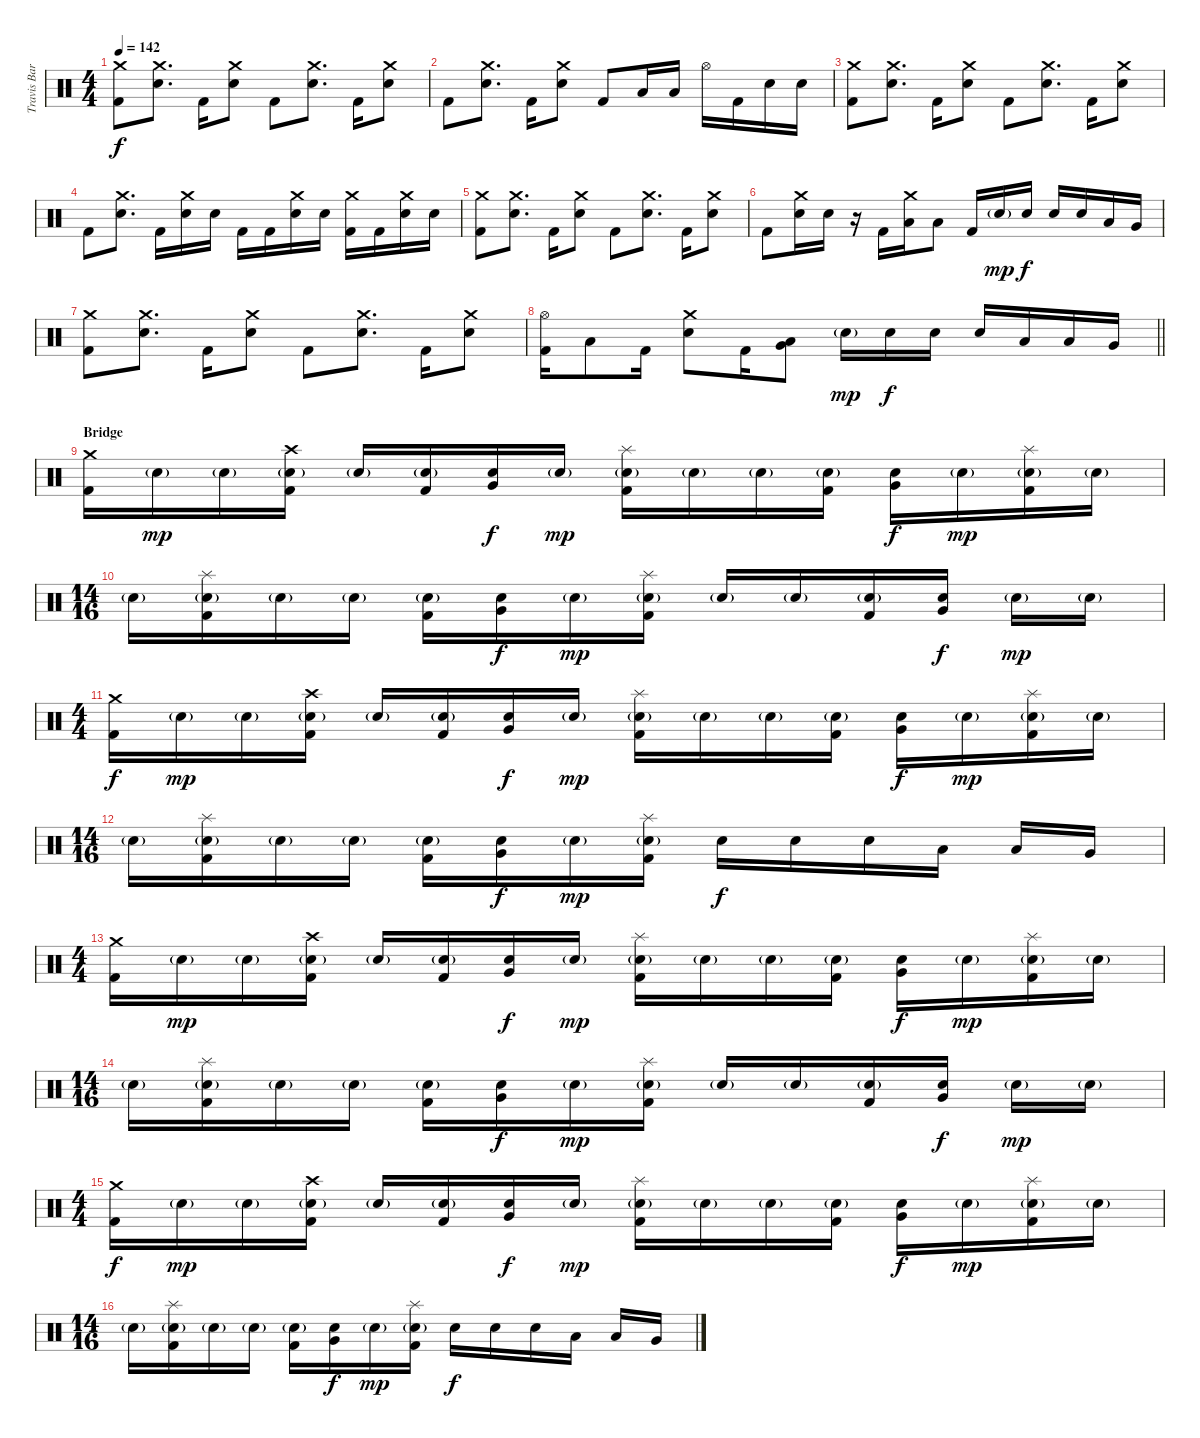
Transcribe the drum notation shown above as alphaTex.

\track ("Travis Barker - Drums" "Travis Bar") {instrument percussion}
\staff {score}
\articulation defaults
\ts (4 4)
\tempo 142
\clef neutral
\ks c
("Crash medium (hit)" "Kick (hit) 2").8{dy f} ("Crash medium (hit)" "Electric Snare (hit)").8{d} "Kick (hit) 2".16 ("Crash medium (hit)" "Electric Snare (hit)").8 "Kick (hit) 2".8 ("Crash medium (hit)" "Electric Snare (hit)").8{d} "Kick (hit) 2".16 ("Crash medium (hit)" "Electric Snare (hit)").8 |
"Kick (hit) 2".8 ("Crash medium (hit)" "Electric Snare (hit)").8{d} "Kick (hit) 2".16 ("Crash medium (hit)" "Electric Snare (hit)").8 "Kick (hit) 2".8 "Low Tom (hit)".16 "Low Tom (hit)".16 "Hi-Hat (open)".16 "Kick (hit) 2".16 "Electric Snare (hit)".16 "Electric Snare (hit)".16 |
("Crash medium (hit)" "Kick (hit) 2").8 ("Crash medium (hit)" "Electric Snare (hit)").8{d} "Kick (hit) 2".16 ("Crash medium (hit)" "Electric Snare (hit)").8 "Kick (hit) 2".8 ("Crash medium (hit)" "Electric Snare (hit)").8{d} "Kick (hit) 2".16 ("Crash medium (hit)" "Electric Snare (hit)").8 |
"Kick (hit) 2".8 ("Crash medium (hit)" "Electric Snare (hit)").8{d} "Kick (hit) 2".16 ("Crash medium (hit)" "Electric Snare (hit)").16 "Electric Snare (hit)".16 "Kick (hit) 2".16 "Kick (hit) 2".16 ("Crash medium (hit)" "Electric Snare (hit)").16 "Electric Snare (hit)".16 ("Crash medium (hit)" "Kick (hit) 2").16 "Kick (hit) 2".16 ("Crash medium (hit)" "Electric Snare (hit)").16 "Electric Snare (hit)".16 |
("Crash medium (hit)" "Kick (hit) 2").8 ("Crash medium (hit)" "Electric Snare (hit)").8{d} "Kick (hit) 2".16 ("Crash medium (hit)" "Electric Snare (hit)").8 "Kick (hit) 2".8 ("Crash medium (hit)" "Electric Snare (hit)").8{d} "Kick (hit) 2".16 ("Crash medium (hit)" "Electric Snare (hit)").8 |
"Kick (hit) 2".8 ("Crash medium (hit)" "Electric Snare (hit)").16 "Electric Snare (hit)".16 r.16 "Kick (hit) 2".16 ("Crash medium (hit)" "Low Tom (hit)").16 "Low Tom (hit)".8 "Kick (hit) 2".16 "Electric Snare (hit)"{g}.16{dy mp} "Electric Snare (hit)".16{dy f} "Electric Snare (hit)".16 "Electric Snare (hit)".16 "Low Tom (hit)".16 "Very Low Tom (hit)".16 |
("Crash medium (hit)" "Kick (hit) 2").8 ("Crash medium (hit)" "Electric Snare (hit)").8{d} "Kick (hit) 2".16 ("Crash medium (hit)" "Electric Snare (hit)").8 "Kick (hit) 2".8 ("Crash medium (hit)" "Electric Snare (hit)").8{d} "Kick (hit) 2".16 ("Crash medium (hit)" "Electric Snare (hit)").8 |
\barLineRight lightlight
("Hi-Hat (open)" "Kick (hit) 2").16 "Low Tom (hit)".8 "Kick (hit) 2".16 ("Crash medium (hit)" "Electric Snare (hit)").8 "Kick (hit) 2".16 ("Very Low Tom (hit)" "Low Tom (hit)").8 "Electric Snare (hit)"{g}.16{dy mp} "Electric Snare (hit)".16{dy f} "Electric Snare (hit)".16 "Electric Snare (hit)".16 "Low Tom (hit)".16 "Low Tom (hit)".16 "Very Low Tom (hit)".16 |
\section ("" "Bridge")
("Crash medium (hit)" "Kick (hit) 2").16 "Electric Snare (hit)"{g}.16{dy mp} "Electric Snare (hit)"{g}.16 ("Crash high (hit)" "Electric Snare (hit)"{g} "Kick (hit) 2").16 "Electric Snare (hit)"{g}.16 ("Electric Snare (hit)"{g} "Kick (hit) 2").16 ("Very Low Tom (hit)" "Electric Snare (hit)").16{dy f} "Electric Snare (hit)"{g}.16{dy mp} ("Splash (hit)" "Electric Snare (hit)"{g} "Kick (hit) 2").16 "Electric Snare (hit)"{g}.16 "Electric Snare (hit)"{g}.16 ("Electric Snare (hit)"{g} "Kick (hit) 2").16 ("Very Low Tom (hit)" "Electric Snare (hit)").16{dy f} "Electric Snare (hit)"{g}.16{dy mp} ("Splash (hit)" "Electric Snare (hit)"{g} "Kick (hit) 2").16 "Electric Snare (hit)"{g}.16 |
\ts (14 16)
"Electric Snare (hit)"{g}.16 ("Splash (hit)" "Electric Snare (hit)"{g} "Kick (hit) 2").16 "Electric Snare (hit)"{g}.16 "Electric Snare (hit)"{g}.16 ("Electric Snare (hit)"{g} "Kick (hit) 2").16 ("Very Low Tom (hit)" "Electric Snare (hit)").16{dy f} "Electric Snare (hit)"{g}.16{dy mp} ("Splash (hit)" "Electric Snare (hit)"{g} "Kick (hit) 2").16 "Electric Snare (hit)"{g}.16 "Electric Snare (hit)"{g}.16 ("Electric Snare (hit)"{g} "Kick (hit) 2").16 ("Very Low Tom (hit)" "Electric Snare (hit)").16{dy f} "Electric Snare (hit)"{g}.16{dy mp} "Electric Snare (hit)"{g}.16 |
\ts (4 4)
("Crash medium (hit)" "Kick (hit) 2").16{dy f} "Electric Snare (hit)"{g}.16{dy mp} "Electric Snare (hit)"{g}.16 ("Crash high (hit)" "Electric Snare (hit)"{g} "Kick (hit) 2").16 "Electric Snare (hit)"{g}.16 ("Electric Snare (hit)"{g} "Kick (hit) 2").16 ("Very Low Tom (hit)" "Electric Snare (hit)").16{dy f} "Electric Snare (hit)"{g}.16{dy mp} ("Splash (hit)" "Electric Snare (hit)"{g} "Kick (hit) 2").16 "Electric Snare (hit)"{g}.16 "Electric Snare (hit)"{g}.16 ("Electric Snare (hit)"{g} "Kick (hit) 2").16 ("Very Low Tom (hit)" "Electric Snare (hit)").16{dy f} "Electric Snare (hit)"{g}.16{dy mp} ("Splash (hit)" "Electric Snare (hit)"{g} "Kick (hit) 2").16 "Electric Snare (hit)"{g}.16 |
\ts (14 16)
"Electric Snare (hit)"{g}.16 ("Splash (hit)" "Electric Snare (hit)"{g} "Kick (hit) 2").16 "Electric Snare (hit)"{g}.16 "Electric Snare (hit)"{g}.16 ("Electric Snare (hit)"{g} "Kick (hit) 2").16 ("Very Low Tom (hit)" "Electric Snare (hit)").16{dy f} "Electric Snare (hit)"{g}.16{dy mp} ("Splash (hit)" "Electric Snare (hit)"{g} "Kick (hit) 2").16 "Electric Snare (hit)".16{dy f} "Electric Snare (hit)".16 "Electric Snare (hit)".16 "Low Tom (hit)".16 "Low Tom (hit)".16 "Very Low Tom (hit)".16 |
\ts (4 4)
("Crash medium (hit)" "Kick (hit) 2").16 "Electric Snare (hit)"{g}.16{dy mp} "Electric Snare (hit)"{g}.16 ("Crash high (hit)" "Electric Snare (hit)"{g} "Kick (hit) 2").16 "Electric Snare (hit)"{g}.16 ("Electric Snare (hit)"{g} "Kick (hit) 2").16 ("Very Low Tom (hit)" "Electric Snare (hit)").16{dy f} "Electric Snare (hit)"{g}.16{dy mp} ("Splash (hit)" "Electric Snare (hit)"{g} "Kick (hit) 2").16 "Electric Snare (hit)"{g}.16 "Electric Snare (hit)"{g}.16 ("Electric Snare (hit)"{g} "Kick (hit) 2").16 ("Very Low Tom (hit)" "Electric Snare (hit)").16{dy f} "Electric Snare (hit)"{g}.16{dy mp} ("Splash (hit)" "Electric Snare (hit)"{g} "Kick (hit) 2").16 "Electric Snare (hit)"{g}.16 |
\ts (14 16)
"Electric Snare (hit)"{g}.16 ("Splash (hit)" "Electric Snare (hit)"{g} "Kick (hit) 2").16 "Electric Snare (hit)"{g}.16 "Electric Snare (hit)"{g}.16 ("Electric Snare (hit)"{g} "Kick (hit) 2").16 ("Very Low Tom (hit)" "Electric Snare (hit)").16{dy f} "Electric Snare (hit)"{g}.16{dy mp} ("Splash (hit)" "Electric Snare (hit)"{g} "Kick (hit) 2").16 "Electric Snare (hit)"{g}.16 "Electric Snare (hit)"{g}.16 ("Electric Snare (hit)"{g} "Kick (hit) 2").16 ("Very Low Tom (hit)" "Electric Snare (hit)").16{dy f} "Electric Snare (hit)"{g}.16{dy mp} "Electric Snare (hit)"{g}.16 |
\ts (4 4)
("Crash medium (hit)" "Kick (hit) 2").16{dy f} "Electric Snare (hit)"{g}.16{dy mp} "Electric Snare (hit)"{g}.16 ("Crash high (hit)" "Electric Snare (hit)"{g} "Kick (hit) 2").16 "Electric Snare (hit)"{g}.16 ("Electric Snare (hit)"{g} "Kick (hit) 2").16 ("Very Low Tom (hit)" "Electric Snare (hit)").16{dy f} "Electric Snare (hit)"{g}.16{dy mp} ("Splash (hit)" "Electric Snare (hit)"{g} "Kick (hit) 2").16 "Electric Snare (hit)"{g}.16 "Electric Snare (hit)"{g}.16 ("Electric Snare (hit)"{g} "Kick (hit) 2").16 ("Very Low Tom (hit)" "Electric Snare (hit)").16{dy f} "Electric Snare (hit)"{g}.16{dy mp} ("Splash (hit)" "Electric Snare (hit)"{g} "Kick (hit) 2").16 "Electric Snare (hit)"{g}.16 |
\ts (14 16)
"Electric Snare (hit)"{g}.16 ("Splash (hit)" "Electric Snare (hit)"{g} "Kick (hit) 2").16 "Electric Snare (hit)"{g}.16 "Electric Snare (hit)"{g}.16 ("Electric Snare (hit)"{g} "Kick (hit) 2").16 ("Very Low Tom (hit)" "Electric Snare (hit)").16{dy f} "Electric Snare (hit)"{g}.16{dy mp} ("Splash (hit)" "Electric Snare (hit)"{g} "Kick (hit) 2").16 "Electric Snare (hit)".16{dy f} "Electric Snare (hit)".16 "Electric Snare (hit)".16 "Low Tom (hit)".16 "Low Tom (hit)".16 "Very Low Tom (hit)".16
